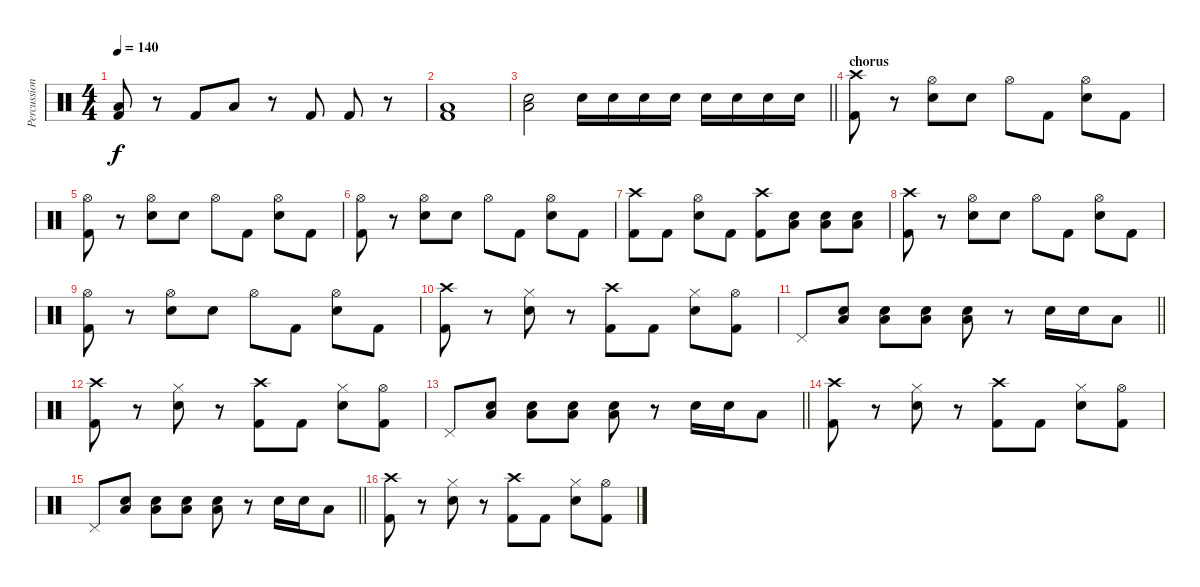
\track ("Percussion" "Percussion") {instrument percussion}
\staff {score}
\articulation defaults
\ts (4 4)
\tempo 140
\clef neutral
\ks c
("Low Floor Tom (hit)" "Kick (hit) 2").8{dy f} r.8 "Kick (hit) 2".8 "Low Floor Tom (hit)".8 r.8 "Kick (hit) 2".8 "Kick (hit) 2".8 r.8 |
("Low Floor Tom (hit)" "Kick (hit) 2").1 |
\barLineRight lightlight
("Low Floor Tom (hit)" "Snare (hit) 2").2 "Snare (hit) 2".16 "Snare (hit) 2".16 "Snare (hit) 2".16 "Snare (hit) 2".16 "Snare (hit) 2".16 "Snare (hit) 2".16 "Snare (hit) 2".16 "Snare (hit) 2".16 |
\section ("" "chorus")
("Crash high (hit)" "Kick (hit) 2").8 r.8 ("Hi-Hat (open)" "Snare (hit) 2").8 "Snare (hit) 2".8 "Hi-Hat (open)".8 "Kick (hit) 2".8 ("Hi-Hat (open)" "Snare (hit) 2").8 "Kick (hit) 2".8 |
("Hi-Hat (open)" "Kick (hit) 2").8 r.8 ("Hi-Hat (open)" "Snare (hit) 2").8 "Snare (hit) 2".8 "Hi-Hat (open)".8 "Kick (hit) 2".8 ("Hi-Hat (open)" "Snare (hit) 2").8 "Kick (hit) 2".8 |
("Hi-Hat (open)" "Kick (hit) 2").8 r.8 ("Hi-Hat (open)" "Snare (hit) 2").8 "Snare (hit) 2".8 "Hi-Hat (open)".8 "Kick (hit) 2".8 ("Hi-Hat (open)" "Snare (hit) 2").8 "Kick (hit) 2".8 |
("Crash high (hit)" "Kick (hit) 2").8 "Kick (hit) 2".8 ("Hi-Hat (open)" "Snare (hit) 2").8 "Kick (hit) 2".8 ("Crash high (hit)" "Kick (hit) 2").8 ("Low Floor Tom (hit)" "Snare (hit) 2").8 ("Low Floor Tom (hit)" "Snare (hit) 2").8 ("Low Floor Tom (hit)" "Snare (hit) 2").8 |
("Crash high (hit)" "Kick (hit) 2").8 r.8 ("Hi-Hat (open)" "Snare (hit) 2").8 "Snare (hit) 2".8 "Hi-Hat (open)".8 "Kick (hit) 2".8 ("Hi-Hat (open)" "Snare (hit) 2").8 "Kick (hit) 2".8 |
("Hi-Hat (open)" "Kick (hit) 2").8 r.8 ("Hi-Hat (open)" "Snare (hit) 2").8 "Snare (hit) 2".8 "Hi-Hat (open)".8 "Kick (hit) 2".8 ("Hi-Hat (open)" "Snare (hit) 2").8 "Kick (hit) 2".8 |
("Crash high (hit)" "Kick (hit) 2").8 r.8 ("Hi-Hat (closed)" "Snare (hit) 2").8 r.8 ("Crash high (hit)" "Kick (hit) 2").8 "Kick (hit) 2".8 ("Hi-Hat (closed)" "Snare (hit) 2").8 ("Hi-Hat (open)" "Kick (hit) 2").8 |
\barLineRight lightlight "Pedal Hi-Hat (hit)".8
("Low Floor Tom (hit)" "Snare (hit) 2").8 ("Low Floor Tom (hit)" "Snare (hit) 2").8 ("Low Floor Tom (hit)" "Snare (hit) 2").8 ("Low Floor Tom (hit)" "Snare (hit) 2").8 r.8 "Snare (hit) 2".16 "Snare (hit) 2".16 "Low Floor Tom (hit)".8 |
("Crash high (hit)" "Kick (hit) 2").8 r.8 ("Hi-Hat (closed)" "Snare (hit) 2").8 r.8 ("Crash high (hit)" "Kick (hit) 2").8 "Kick (hit) 2".8 ("Hi-Hat (closed)" "Snare (hit) 2").8 ("Hi-Hat (open)" "Kick (hit) 2").8 |
\barLineRight lightlight "Pedal Hi-Hat (hit)".8
("Low Floor Tom (hit)" "Snare (hit) 2").8 ("Low Floor Tom (hit)" "Snare (hit) 2").8 ("Low Floor Tom (hit)" "Snare (hit) 2").8 ("Low Floor Tom (hit)" "Snare (hit) 2").8 r.8 "Snare (hit) 2".16 "Snare (hit) 2".16 "Low Floor Tom (hit)".8 |
("Crash high (hit)" "Kick (hit) 2").8 r.8 ("Hi-Hat (closed)" "Snare (hit) 2").8 r.8 ("Crash high (hit)" "Kick (hit) 2").8 "Kick (hit) 2".8 ("Hi-Hat (closed)" "Snare (hit) 2").8 ("Hi-Hat (open)" "Kick (hit) 2").8 |
\barLineRight lightlight "Pedal Hi-Hat (hit)".8
("Low Floor Tom (hit)" "Snare (hit) 2").8 ("Low Floor Tom (hit)" "Snare (hit) 2").8 ("Low Floor Tom (hit)" "Snare (hit) 2").8 ("Low Floor Tom (hit)" "Snare (hit) 2").8 r.8 "Snare (hit) 2".16 "Snare (hit) 2".16 "Low Floor Tom (hit)".8 |
("Crash high (hit)" "Kick (hit) 2").8 r.8 ("Hi-Hat (closed)" "Snare (hit) 2").8 r.8 ("Crash high (hit)" "Kick (hit) 2").8 "Kick (hit) 2".8 ("Hi-Hat (closed)" "Snare (hit) 2").8 ("Hi-Hat (open)" "Kick (hit) 2").8
